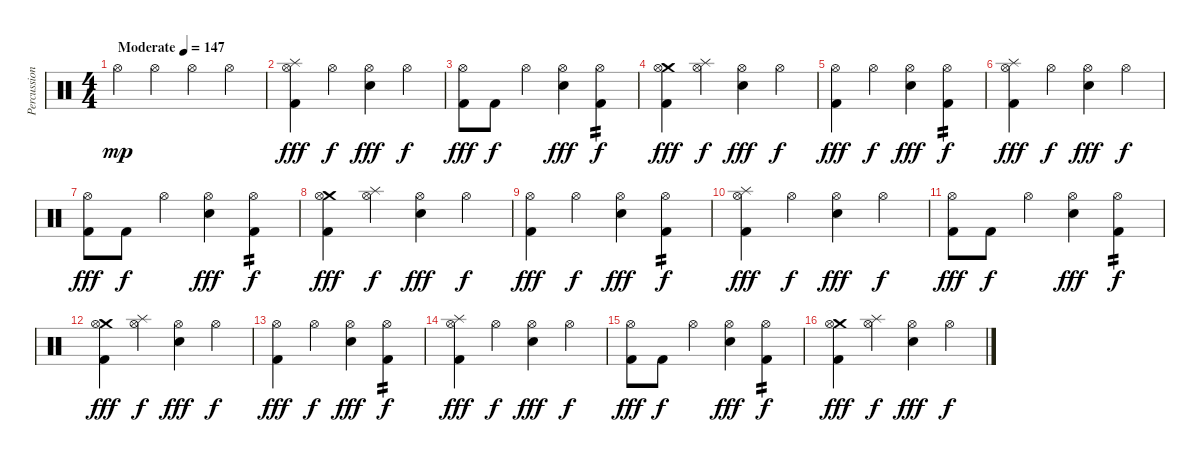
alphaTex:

\track ("Percussion" "Percussion") {instrument percussion}
\staff
\articulation defaults
\ts (4 4)
\tempo (147 "Moderate")
\clef neutral
\ks c "Hi-Hat (open)".4{dy mp} "Hi-Hat (open)".4 "Hi-Hat (open)".4 "Hi-Hat (open)".4
|
("Splash (hit)" "Hi-Hat (open)" "Kick (hit) 2").4{dy fff} "Hi-Hat (open)".4{dy f} ("Hi-Hat (open)" "Electric Snare (hit)").4{dy fff} "Hi-Hat (open)".4{dy f} |
("Hi-Hat (open)" "Kick (hit) 2").8{dy fff} "Kick (hit) 2".8{dy f} "Hi-Hat (open)".4 ("Hi-Hat (open)" "Electric Snare (hit)").4{dy fff} ("Hi-Hat (open)" "Kick (hit) 2").4{tp 2 dy f} |
("Crash medium (hit)" "Hi-Hat (open)" "Kick (hit) 2").4{dy fff} ("Splash (hit)" "Hi-Hat (open)").4{dy f} ("Hi-Hat (open)" "Electric Snare (hit)").4{dy fff} "Hi-Hat (open)".4{dy f} |
("Hi-Hat (open)" "Kick (hit) 2").4{dy fff} "Hi-Hat (open)".4{dy f} ("Hi-Hat (open)" "Electric Snare (hit)").4{dy fff} ("Hi-Hat (open)" "Kick (hit) 2").4{tp 2 dy f} |
("Splash (hit)" "Hi-Hat (open)" "Kick (hit) 2").4{dy fff} "Hi-Hat (open)".4{dy f} ("Hi-Hat (open)" "Electric Snare (hit)").4{dy fff} "Hi-Hat (open)".4{dy f} |
("Hi-Hat (open)" "Kick (hit) 2").8{dy fff} "Kick (hit) 2".8{dy f} "Hi-Hat (open)".4 ("Hi-Hat (open)" "Electric Snare (hit)").4{dy fff} ("Hi-Hat (open)" "Kick (hit) 2").4{tp 2 dy f} |
("Crash medium (hit)" "Hi-Hat (open)" "Kick (hit) 2").4{dy fff} ("Splash (hit)" "Hi-Hat (open)").4{dy f} ("Hi-Hat (open)" "Electric Snare (hit)").4{dy fff} "Hi-Hat (open)".4{dy f} |
("Hi-Hat (open)" "Kick (hit) 2").4{dy fff} "Hi-Hat (open)".4{dy f} ("Hi-Hat (open)" "Electric Snare (hit)").4{dy fff} ("Hi-Hat (open)" "Kick (hit) 2").4{tp 2 dy f} |
("Splash (hit)" "Hi-Hat (open)" "Kick (hit) 2").4{dy fff} "Hi-Hat (open)".4{dy f} ("Hi-Hat (open)" "Electric Snare (hit)").4{dy fff} "Hi-Hat (open)".4{dy f} |
("Hi-Hat (open)" "Kick (hit) 2").8{dy fff} "Kick (hit) 2".8{dy f} "Hi-Hat (open)".4 ("Hi-Hat (open)" "Electric Snare (hit)").4{dy fff} ("Hi-Hat (open)" "Kick (hit) 2").4{tp 2 dy f} |
("Crash medium (hit)" "Hi-Hat (open)" "Kick (hit) 2").4{dy fff} ("Splash (hit)" "Hi-Hat (open)").4{dy f} ("Hi-Hat (open)" "Electric Snare (hit)").4{dy fff} "Hi-Hat (open)".4{dy f} |
("Hi-Hat (open)" "Kick (hit) 2").4{dy fff} "Hi-Hat (open)".4{dy f} ("Hi-Hat (open)" "Electric Snare (hit)").4{dy fff} ("Hi-Hat (open)" "Kick (hit) 2").4{tp 2 dy f} |
("Splash (hit)" "Hi-Hat (open)" "Kick (hit) 2").4{dy fff} "Hi-Hat (open)".4{dy f} ("Hi-Hat (open)" "Electric Snare (hit)").4{dy fff} "Hi-Hat (open)".4{dy f} |
("Hi-Hat (open)" "Kick (hit) 2").8{dy fff} "Kick (hit) 2".8{dy f} "Hi-Hat (open)".4 ("Hi-Hat (open)" "Electric Snare (hit)").4{dy fff} ("Hi-Hat (open)" "Kick (hit) 2").4{tp 2 dy f} |
("Crash medium (hit)" "Hi-Hat (open)" "Kick (hit) 2").4{dy fff} ("Splash (hit)" "Hi-Hat (open)").4{dy f} ("Hi-Hat (open)" "Electric Snare (hit)").4{dy fff} "Hi-Hat (open)".4{dy f}
